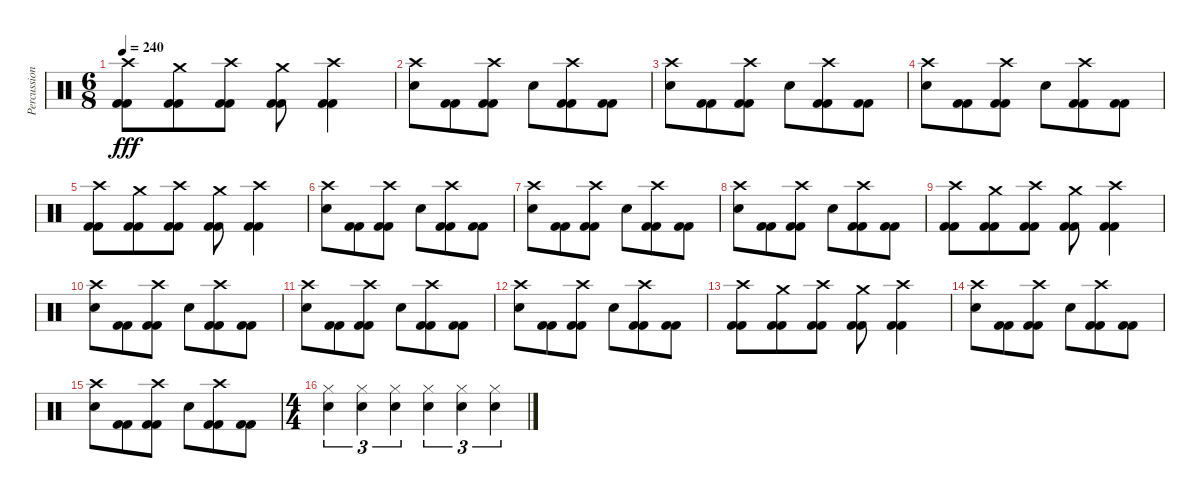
\track ("Percussion" "Percussion") {instrument percussion}
\staff {score}
\articulation defaults
\ts (6 8)
\tempo 240
\clef neutral
\ks c
("Crash high (hit)" "Kick (hit) 2" "Kick (hit) 2").8{dy fff} ("Crash medium (hit)" "Kick (hit) 2" "Kick (hit) 2").8 ("Crash high (hit)" "Kick (hit) 2" "Kick (hit) 2").8 ("Crash medium (hit)" "Kick (hit) 2" "Kick (hit) 2").8 ("Crash high (hit)" "Kick (hit) 2" "Kick (hit) 2").4 |
("Crash high (hit)" "Snare (hit) 2").8 ("Kick (hit) 2" "Kick (hit) 2").8 ("Crash high (hit)" "Kick (hit) 2" "Kick (hit) 2").8 "Snare (hit) 2".8 ("Crash high (hit)" "Kick (hit) 2" "Kick (hit) 2").8 ("Kick (hit) 2" "Kick (hit) 2").8 |
("Crash high (hit)" "Snare (hit) 2").8 ("Kick (hit) 2" "Kick (hit) 2").8 ("Crash high (hit)" "Kick (hit) 2" "Kick (hit) 2").8 "Snare (hit) 2".8 ("Crash high (hit)" "Kick (hit) 2" "Kick (hit) 2").8 ("Kick (hit) 2" "Kick (hit) 2").8 |
("Crash high (hit)" "Snare (hit) 2").8 ("Kick (hit) 2" "Kick (hit) 2").8 ("Crash high (hit)" "Kick (hit) 2" "Kick (hit) 2").8 "Snare (hit) 2".8 ("Crash high (hit)" "Kick (hit) 2" "Kick (hit) 2").8 ("Kick (hit) 2" "Kick (hit) 2").8 |
("Crash high (hit)" "Kick (hit) 2" "Kick (hit) 2").8 ("Crash medium (hit)" "Kick (hit) 2" "Kick (hit) 2").8 ("Crash high (hit)" "Kick (hit) 2" "Kick (hit) 2").8 ("Crash medium (hit)" "Kick (hit) 2" "Kick (hit) 2").8 ("Crash high (hit)" "Kick (hit) 2" "Kick (hit) 2").4 |
("Crash high (hit)" "Snare (hit) 2").8 ("Kick (hit) 2" "Kick (hit) 2").8 ("Crash high (hit)" "Kick (hit) 2" "Kick (hit) 2").8 "Snare (hit) 2".8 ("Crash high (hit)" "Kick (hit) 2" "Kick (hit) 2").8 ("Kick (hit) 2" "Kick (hit) 2").8 |
("Crash high (hit)" "Snare (hit) 2").8 ("Kick (hit) 2" "Kick (hit) 2").8 ("Crash high (hit)" "Kick (hit) 2" "Kick (hit) 2").8 "Snare (hit) 2".8 ("Crash high (hit)" "Kick (hit) 2" "Kick (hit) 2").8 ("Kick (hit) 2" "Kick (hit) 2").8 |
("Crash high (hit)" "Snare (hit) 2").8 ("Kick (hit) 2" "Kick (hit) 2").8 ("Crash high (hit)" "Kick (hit) 2" "Kick (hit) 2").8 "Snare (hit) 2".8 ("Crash high (hit)" "Kick (hit) 2" "Kick (hit) 2").8 ("Kick (hit) 2" "Kick (hit) 2").8 |
("Crash high (hit)" "Kick (hit) 2" "Kick (hit) 2").8 ("Crash medium (hit)" "Kick (hit) 2" "Kick (hit) 2").8 ("Crash high (hit)" "Kick (hit) 2" "Kick (hit) 2").8 ("Crash medium (hit)" "Kick (hit) 2" "Kick (hit) 2").8 ("Crash high (hit)" "Kick (hit) 2" "Kick (hit) 2").4 |
("Crash high (hit)" "Snare (hit) 2").8 ("Kick (hit) 2" "Kick (hit) 2").8 ("Crash high (hit)" "Kick (hit) 2" "Kick (hit) 2").8 "Snare (hit) 2".8 ("Crash high (hit)" "Kick (hit) 2" "Kick (hit) 2").8 ("Kick (hit) 2" "Kick (hit) 2").8 |
("Crash high (hit)" "Snare (hit) 2").8 ("Kick (hit) 2" "Kick (hit) 2").8 ("Crash high (hit)" "Kick (hit) 2" "Kick (hit) 2").8 "Snare (hit) 2".8 ("Crash high (hit)" "Kick (hit) 2" "Kick (hit) 2").8 ("Kick (hit) 2" "Kick (hit) 2").8 |
("Crash high (hit)" "Snare (hit) 2").8 ("Kick (hit) 2" "Kick (hit) 2").8 ("Crash high (hit)" "Kick (hit) 2" "Kick (hit) 2").8 "Snare (hit) 2".8 ("Crash high (hit)" "Kick (hit) 2" "Kick (hit) 2").8 ("Kick (hit) 2" "Kick (hit) 2").8 |
("Crash high (hit)" "Kick (hit) 2" "Kick (hit) 2").8 ("Crash medium (hit)" "Kick (hit) 2" "Kick (hit) 2").8 ("Crash high (hit)" "Kick (hit) 2" "Kick (hit) 2").8 ("Crash medium (hit)" "Kick (hit) 2" "Kick (hit) 2").8 ("Crash high (hit)" "Kick (hit) 2" "Kick (hit) 2").4 |
("Crash high (hit)" "Snare (hit) 2").8 ("Kick (hit) 2" "Kick (hit) 2").8 ("Crash high (hit)" "Kick (hit) 2" "Kick (hit) 2").8 "Snare (hit) 2".8 ("Crash high (hit)" "Kick (hit) 2" "Kick (hit) 2").8 ("Kick (hit) 2" "Kick (hit) 2").8 |
("Crash high (hit)" "Snare (hit) 2").8 ("Kick (hit) 2" "Kick (hit) 2").8 ("Crash high (hit)" "Kick (hit) 2" "Kick (hit) 2").8 "Snare (hit) 2".8 ("Crash high (hit)" "Kick (hit) 2" "Kick (hit) 2").8 ("Kick (hit) 2" "Kick (hit) 2").8 |
\ts (4 4)
("Hi-Hat (closed)" "Snare (hit) 2").4{tu (3 2)} ("Hi-Hat (closed)" "Snare (hit) 2").4{tu (3 2)} ("Hi-Hat (closed)" "Snare (hit) 2").4{tu (3 2)} ("Hi-Hat (closed)" "Snare (hit) 2").4{tu (3 2)} ("Hi-Hat (closed)" "Snare (hit) 2").4{tu (3 2)} ("Hi-Hat (closed)" "Snare (hit) 2").4{tu (3 2)}
